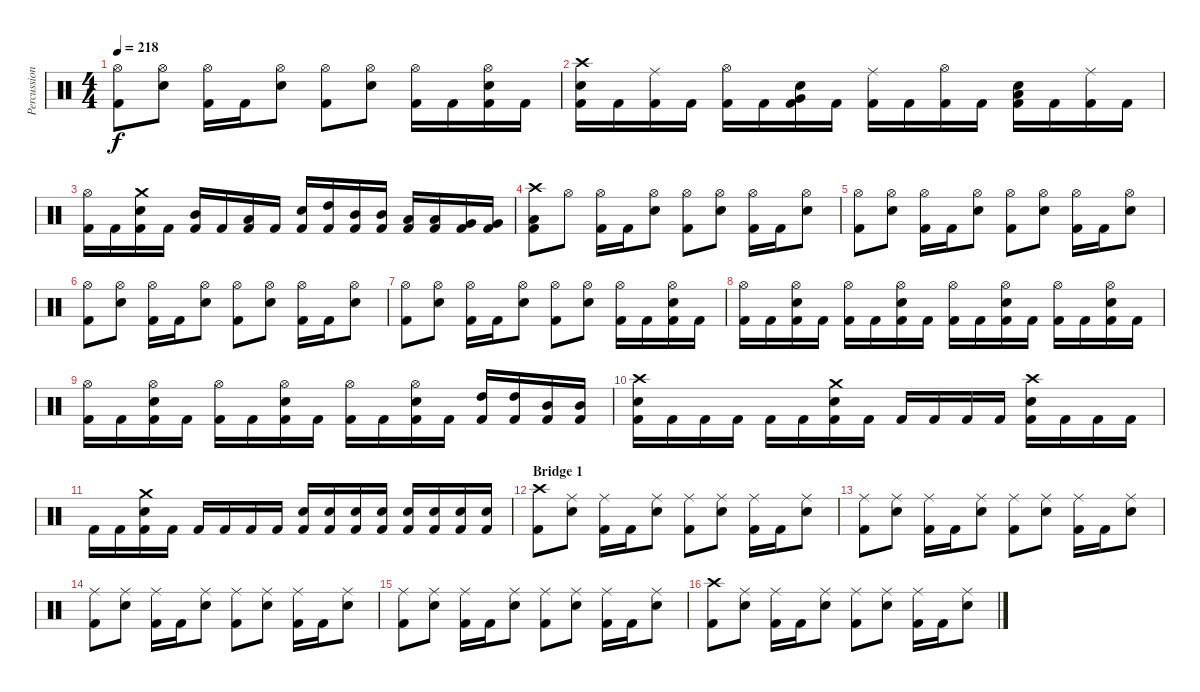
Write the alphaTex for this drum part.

\track ("Percussion" "Percussion") {instrument percussion}
\staff {score}
\articulation defaults
\ts (4 4)
\tempo 218
\clef neutral
\ks c
("Hi-Hat (open)" "Kick (hit) 2").8{dy f} ("Hi-Hat (open)" "Electric Snare (hit)").8 ("Hi-Hat (open)" "Kick (hit) 2").16 "Kick (hit) 2".16 ("Hi-Hat (open)" "Electric Snare (hit)").8 ("Hi-Hat (open)" "Kick (hit) 2").8 ("Hi-Hat (open)" "Electric Snare (hit)").8 ("Hi-Hat (open)" "Kick (hit) 2").16 "Kick (hit) 2".16 ("Hi-Hat (open)" "Electric Snare (hit)" "Kick (hit) 2").16 "Kick (hit) 2".16 |
("Crash high (hit)" "Electric Snare (hit)" "Kick (hit) 2").16 "Kick (hit) 2".16 ("Ride (middle)" "Kick (hit) 2").16 "Kick (hit) 2".16 ("Hi-Hat (open)" "Kick (hit) 2").16 "Kick (hit) 2".16 ("Very Low Tom (hit)" "Electric Snare (hit)" "Kick (hit) 2").16 "Kick (hit) 2".16 ("Ride (middle)" "Kick (hit) 2").16 "Kick (hit) 2".16 ("Hi-Hat (open)" "Kick (hit) 2").16 "Kick (hit) 2".16 ("Low Tom (hit)" "Electric Snare (hit)" "Kick (hit) 2").16 "Kick (hit) 2".16 ("Ride (middle)" "Kick (hit) 2").16 "Kick (hit) 2".16 |
("Hi-Hat (open)" "Kick (hit) 2").16 "Kick (hit) 2".16 ("Crash medium (hit)" "Electric Snare (hit)" "Kick (hit) 2").16 "Kick (hit) 2".16 ("Mid Tom (hit)" "Kick (hit) 2").16 "Kick (hit) 2".16 ("Low Tom (hit)" "Kick (hit) 2").16 "Kick (hit) 2".16 ("Electric Snare (hit)" "Kick (hit) 2").16 ("High Tom (hit)" "Kick (hit) 2").16 ("Mid Tom (hit)" "Kick (hit) 2").16 ("Mid Tom (hit)" "Kick (hit) 2").16 ("Low Tom (hit)" "Kick (hit) 2").16 ("Low Tom (hit)" "Kick (hit) 2").16 ("Very Low Tom (hit)" "Kick (hit) 2").16 ("Very Low Tom (hit)" "Kick (hit) 2").16 |
("Crash high (hit)" "Low Floor Tom (hit)" "Kick (hit) 2").8 "Hi-Hat (open)".8 ("Hi-Hat (open)" "Kick (hit) 2").16 "Kick (hit) 2".16 ("Hi-Hat (open)" "Electric Snare (hit)").8 ("Hi-Hat (open)" "Kick (hit) 2").8 ("Hi-Hat (open)" "Electric Snare (hit)").8 ("Hi-Hat (open)" "Kick (hit) 2").16 "Kick (hit) 2".16 ("Hi-Hat (open)" "Electric Snare (hit)").8 |
("Hi-Hat (open)" "Kick (hit) 2").8 ("Hi-Hat (open)" "Electric Snare (hit)").8 ("Hi-Hat (open)" "Kick (hit) 2").16 "Kick (hit) 2".16 ("Hi-Hat (open)" "Electric Snare (hit)").8 ("Hi-Hat (open)" "Kick (hit) 2").8 ("Hi-Hat (open)" "Electric Snare (hit)").8 ("Hi-Hat (open)" "Kick (hit) 2").16 "Kick (hit) 2".16 ("Hi-Hat (open)" "Electric Snare (hit)").8 |
("Hi-Hat (open)" "Kick (hit) 2").8 ("Hi-Hat (open)" "Electric Snare (hit)").8 ("Hi-Hat (open)" "Kick (hit) 2").16 "Kick (hit) 2".16 ("Hi-Hat (open)" "Electric Snare (hit)").8 ("Hi-Hat (open)" "Kick (hit) 2").8 ("Hi-Hat (open)" "Electric Snare (hit)").8 ("Hi-Hat (open)" "Kick (hit) 2").16 "Kick (hit) 2".16 ("Hi-Hat (open)" "Electric Snare (hit)").8 |
("Hi-Hat (open)" "Kick (hit) 2").8 ("Hi-Hat (open)" "Electric Snare (hit)").8 ("Hi-Hat (open)" "Kick (hit) 2").16 "Kick (hit) 2".16 ("Hi-Hat (open)" "Electric Snare (hit)").8 ("Hi-Hat (open)" "Kick (hit) 2").8 ("Hi-Hat (open)" "Electric Snare (hit)").8 ("Hi-Hat (open)" "Kick (hit) 2").16 "Kick (hit) 2".16 ("Hi-Hat (open)" "Electric Snare (hit)" "Kick (hit) 2").16 "Kick (hit) 2".16 |
("Hi-Hat (open)" "Kick (hit) 2").16 "Kick (hit) 2".16 ("Hi-Hat (open)" "Electric Snare (hit)" "Kick (hit) 2").16 "Kick (hit) 2".16 ("Hi-Hat (open)" "Kick (hit) 2").16 "Kick (hit) 2".16 ("Hi-Hat (open)" "Electric Snare (hit)" "Kick (hit) 2").16 "Kick (hit) 2".16 ("Hi-Hat (open)" "Kick (hit) 2").16 "Kick (hit) 2".16 ("Hi-Hat (open)" "Electric Snare (hit)" "Kick (hit) 2").16 "Kick (hit) 2".16 ("Hi-Hat (open)" "Kick (hit) 2").16 "Kick (hit) 2".16 ("Hi-Hat (open)" "Electric Snare (hit)" "Kick (hit) 2").16 "Kick (hit) 2".16 |
("Hi-Hat (open)" "Kick (hit) 2").16 "Kick (hit) 2".16 ("Hi-Hat (open)" "Electric Snare (hit)" "Kick (hit) 2").16 "Kick (hit) 2".16 ("Hi-Hat (open)" "Kick (hit) 2").16 "Kick (hit) 2".16 ("Hi-Hat (open)" "Electric Snare (hit)" "Kick (hit) 2").16 "Kick (hit) 2".16 ("Hi-Hat (open)" "Kick (hit) 2").16 "Kick (hit) 2".16 ("Hi-Hat (open)" "Electric Snare (hit)" "Kick (hit) 2").16 "Kick (hit) 2".16 ("High Tom (hit)" "Kick (hit) 2").16 ("High Tom (hit)" "Kick (hit) 2").16 ("Mid Tom (hit)" "Kick (hit) 2").16 ("Mid Tom (hit)" "Kick (hit) 2").16 |
("Crash high (hit)" "Electric Snare (hit)" "Kick (hit) 2").16 "Kick (hit) 2".16 "Kick (hit) 2".16 "Kick (hit) 2".16 "Kick (hit) 2".16 "Kick (hit) 2".16 ("Crash medium (hit)" "Electric Snare (hit)" "Kick (hit) 2").16 "Kick (hit) 2".16 "Kick (hit) 2".16 "Kick (hit) 2".16 "Kick (hit) 2".16 "Kick (hit) 2".16 ("Crash high (hit)" "Electric Snare (hit)" "Kick (hit) 2").16 "Kick (hit) 2".16 "Kick (hit) 2".16 "Kick (hit) 2".16 |
"Kick (hit) 2".16 "Kick (hit) 2".16 ("Crash medium (hit)" "Electric Snare (hit)" "Kick (hit) 2").16 "Kick (hit) 2".16 "Kick (hit) 2".16 "Kick (hit) 2".16 "Kick (hit) 2".16 "Kick (hit) 2".16 ("Electric Snare (hit)" "Kick (hit) 2").16 ("Electric Snare (hit)" "Kick (hit) 2").16 ("Electric Snare (hit)" "Kick (hit) 2").16 ("Electric Snare (hit)" "Kick (hit) 2").16 ("Electric Snare (hit)" "Kick (hit) 2").16 ("Electric Snare (hit)" "Kick (hit) 2").16 ("Electric Snare (hit)" "Kick (hit) 2").16 ("Electric Snare (hit)" "Kick (hit) 2").16 |
\section ("" "Bridge 1")
("Crash high (hit)" "Kick (hit) 2").8 ("Ride (middle)" "Electric Snare (hit)").8 ("Ride (middle)" "Kick (hit) 2").16 "Kick (hit) 2".16 ("Ride (middle)" "Electric Snare (hit)").8 ("Ride (middle)" "Kick (hit) 2").8 ("Ride (middle)" "Electric Snare (hit)").8 ("Ride (middle)" "Kick (hit) 2").16 "Kick (hit) 2".16 ("Ride (middle)" "Electric Snare (hit)").8 |
("Ride (middle)" "Kick (hit) 2").8 ("Ride (middle)" "Electric Snare (hit)").8 ("Ride (middle)" "Kick (hit) 2").16 "Kick (hit) 2".16 ("Ride (middle)" "Electric Snare (hit)").8 ("Ride (middle)" "Kick (hit) 2").8 ("Ride (middle)" "Electric Snare (hit)").8 ("Ride (middle)" "Kick (hit) 2").16 "Kick (hit) 2".16 ("Ride (middle)" "Electric Snare (hit)").8 |
("Ride (middle)" "Kick (hit) 2").8 ("Ride (middle)" "Electric Snare (hit)").8 ("Ride (middle)" "Kick (hit) 2").16 "Kick (hit) 2".16 ("Ride (middle)" "Electric Snare (hit)").8 ("Ride (middle)" "Kick (hit) 2").8 ("Ride (middle)" "Electric Snare (hit)").8 ("Ride (middle)" "Kick (hit) 2").16 "Kick (hit) 2".16 ("Ride (middle)" "Electric Snare (hit)").8 |
("Ride (middle)" "Kick (hit) 2").8 ("Ride (middle)" "Electric Snare (hit)").8 ("Ride (middle)" "Kick (hit) 2").16 "Kick (hit) 2".16 ("Ride (middle)" "Electric Snare (hit)").8 ("Ride (middle)" "Kick (hit) 2").8 ("Ride (middle)" "Electric Snare (hit)").8 ("Ride (middle)" "Kick (hit) 2").16 "Kick (hit) 2".16 ("Ride (middle)" "Electric Snare (hit)").8 |
("Crash high (hit)" "Kick (hit) 2").8 ("Ride (middle)" "Electric Snare (hit)").8 ("Ride (middle)" "Kick (hit) 2").16 "Kick (hit) 2".16 ("Ride (middle)" "Electric Snare (hit)").8 ("Ride (middle)" "Kick (hit) 2").8 ("Ride (middle)" "Electric Snare (hit)").8 ("Ride (middle)" "Kick (hit) 2").16 "Kick (hit) 2".16 ("Ride (middle)" "Electric Snare (hit)").8
